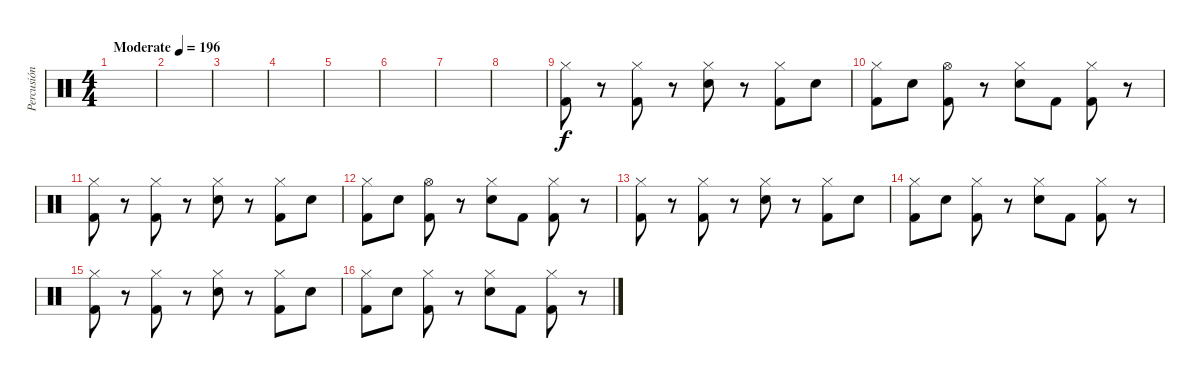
\track ("Percusión" "Percusión") {instrument percussion}
\staff {score}
\articulation defaults
\ts (4 4)
\tempo (196 "Moderate")
\clef neutral
\ks c
|
|
|
|
|
|
|
|
("Hi-Hat (closed)" "Kick (hit) 2").8 r.8 ("Hi-Hat (closed)" "Kick (hit) 2").8 r.8 ("Hi-Hat (closed)" "Snare (hit) 2").8 r.8 ("Hi-Hat (closed)" "Kick (hit) 2").8 "Snare (hit) 2".8 |
("Hi-Hat (closed)" "Kick (hit) 2").8 "Snare (hit) 2".8 ("Hi-Hat (open)" "Kick (hit) 2").8 r.8 ("Hi-Hat (closed)" "Snare (hit) 2").8 "Kick (hit) 2".8 ("Hi-Hat (closed)" "Kick (hit) 2").8 r.8 |
("Hi-Hat (closed)" "Kick (hit) 2").8 r.8 ("Hi-Hat (closed)" "Kick (hit) 2").8 r.8 ("Hi-Hat (closed)" "Snare (hit) 2").8 r.8 ("Hi-Hat (closed)" "Kick (hit) 2").8 "Snare (hit) 2".8 |
("Hi-Hat (closed)" "Kick (hit) 2").8 "Snare (hit) 2".8 ("Hi-Hat (open)" "Kick (hit) 2").8 r.8 ("Hi-Hat (closed)" "Snare (hit) 2").8 "Kick (hit) 2".8 ("Hi-Hat (closed)" "Kick (hit) 2").8 r.8 |
("Hi-Hat (closed)" "Kick (hit) 2").8 r.8 ("Hi-Hat (closed)" "Kick (hit) 2").8 r.8 ("Hi-Hat (closed)" "Snare (hit) 2").8 r.8 ("Hi-Hat (closed)" "Kick (hit) 2").8 "Snare (hit) 2".8 |
("Hi-Hat (closed)" "Kick (hit) 2").8 "Snare (hit) 2".8 ("Hi-Hat (closed)" "Kick (hit) 2").8 r.8 ("Hi-Hat (closed)" "Snare (hit) 2").8 "Kick (hit) 2".8 ("Hi-Hat (closed)" "Kick (hit) 2").8 r.8 |
("Hi-Hat (closed)" "Kick (hit) 2").8 r.8 ("Hi-Hat (closed)" "Kick (hit) 2").8 r.8 ("Hi-Hat (closed)" "Snare (hit) 2").8 r.8 ("Hi-Hat (closed)" "Kick (hit) 2").8 "Snare (hit) 2".8 |
("Hi-Hat (closed)" "Kick (hit) 2").8 "Snare (hit) 2".8 ("Hi-Hat (closed)" "Kick (hit) 2").8 r.8 ("Hi-Hat (closed)" "Snare (hit) 2").8 "Kick (hit) 2".8 ("Hi-Hat (closed)" "Kick (hit) 2").8 r.8
